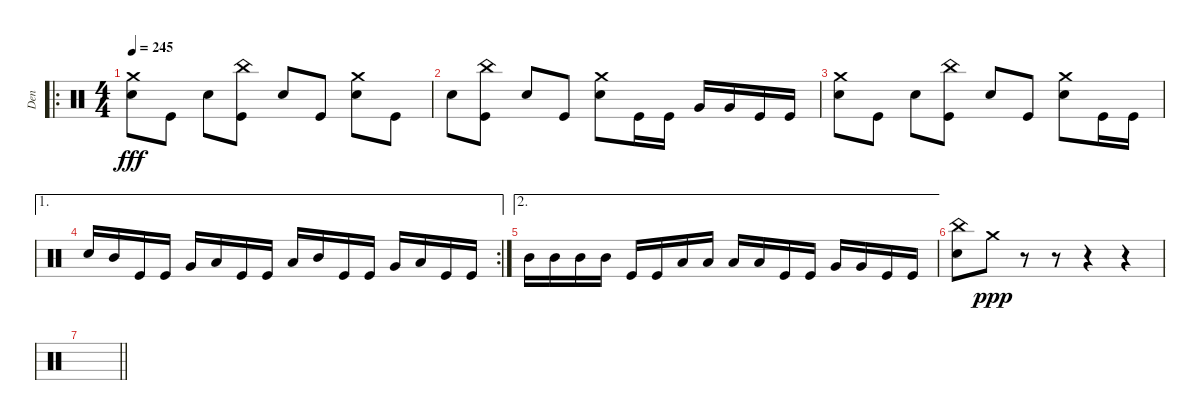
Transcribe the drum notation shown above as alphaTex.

\track ("Den" "Den") {instrument percussion}
\staff {score}
\articulation defaults
\ro
\ts (4 4)
\tempo 245
\clef neutral
\ks c
("Electric Snare (hit)" "Crash medium (hit)").8{dy fff} "Kick (hit)".8 "Electric Snare (hit)".8 ("Kick (hit)" "China (hit)").8 "Electric Snare (hit)".8 "Kick (hit)".8 ("Electric Snare (hit)" "Crash medium (hit)").8 "Kick (hit)".8 |
"Electric Snare (hit)".8 ("Kick (hit)" "China (hit)").8 "Electric Snare (hit)".8 "Kick (hit)".8 ("Electric Snare (hit)" "Crash medium (hit)").8 "Kick (hit)".16 "Kick (hit)".16 "Very Low Tom (hit)".16 "Very Low Tom (hit)".16 "Kick (hit)".16 "Kick (hit)".16 |
("Electric Snare (hit)" "Crash medium (hit)").8 "Kick (hit)".8 "Electric Snare (hit)".8 ("Kick (hit)" "China (hit)").8 "Electric Snare (hit)".8 "Kick (hit)".8 ("Electric Snare (hit)" "Crash medium (hit)").8 "Kick (hit)".16 "Kick (hit)".16 |
\ae 1
\rc 2 "Electric Snare (hit)".16 "Mid Tom (hit)".16 "Kick (hit)".16 "Kick (hit)".16 "Very Low Tom (hit)".16 "Low Tom (hit)".16 "Kick (hit)".16 "Kick (hit)".16 "Low Tom (hit)".16 "Mid Tom (hit)".16 "Kick (hit)".16 "Kick (hit)".16 "Very Low Tom (hit)".16 "Low Tom (hit)".16 "Kick (hit)".16 "Kick (hit)".16
|
\ae 2 "Mid Tom (hit)".16 "Mid Tom (hit)".16 "Mid Tom (hit)".16 "Mid Tom (hit)".16 "Kick (hit)".16 "Kick (hit)".16 "Low Tom (hit)".16 "Low Tom (hit)".16 "Low Tom (hit)".16 "Low Tom (hit)".16 "Kick (hit)".16 "Kick (hit)".16 "Very Low Tom (hit)".16 "Very Low Tom (hit)".16 "Kick (hit)".16 "Kick (hit)".16
|
("China (hit)" "Electric Snare (hit)").8 "Crash medium (hit)".8{dy ppp} r.8 r.8 r.4 r.4 |
\barLineRight lightlight
